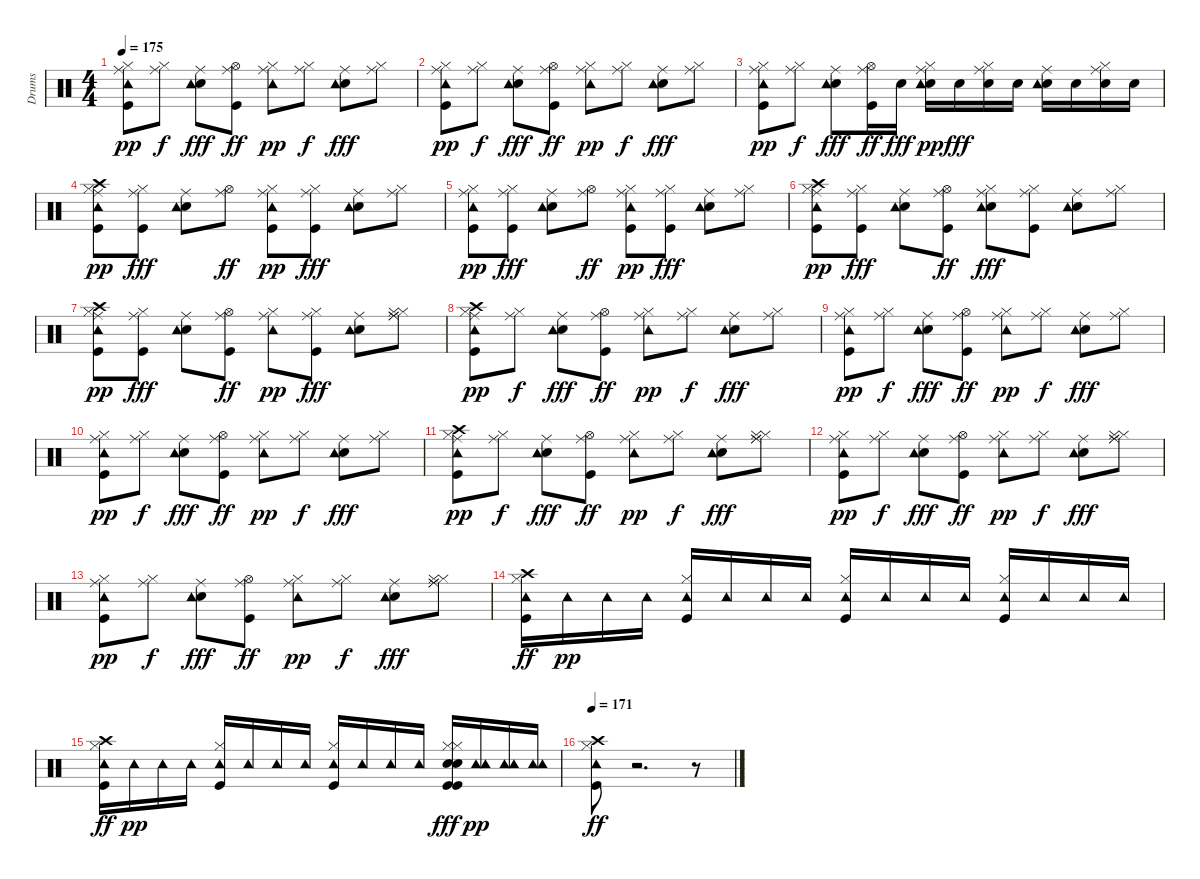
\track ("Drums" "Drums") {instrument percussion}
\staff {score}
\articulation defaults
\ts (4 4)
\tempo 175
\clef neutral
\ks c
("Kick (hit)" "Hi-Hat (closed)" "Ride (middle)" "Tambourine (hit)").8{dy pp} ("Hi-Hat (closed)" "Ride (middle)").8{dy f} ("Snare (hit) 2" "Ride (middle)" "Tambourine (hit)").8{dy fff} ("Kick (hit)" "Hi-Hat (open)" "Ride (middle)").8{dy ff} ("Hi-Hat (closed)" "Ride (middle)" "Tambourine (hit)").8{dy pp} ("Hi-Hat (closed)" "Ride (middle)").8{dy f} ("Snare (hit) 2" "Ride (middle)" "Tambourine (hit)").8{dy fff} ("Hi-Hat (closed)" "Ride (middle)").8 |
("Kick (hit)" "Hi-Hat (closed)" "Ride (middle)" "Tambourine (hit)").8{dy pp} ("Hi-Hat (closed)" "Ride (middle)").8{dy f} ("Snare (hit) 2" "Ride (middle)" "Tambourine (hit)").8{dy fff} ("Kick (hit)" "Hi-Hat (open)" "Ride (middle)").8{dy ff} ("Hi-Hat (closed)" "Ride (middle)" "Tambourine (hit)").8{dy pp} ("Hi-Hat (closed)" "Ride (middle)").8{dy f} ("Snare (hit) 2" "Ride (middle)" "Tambourine (hit)").8{dy fff} ("Hi-Hat (closed)" "Ride (middle)").8 |
("Kick (hit)" "Hi-Hat (closed)" "Ride (middle)" "Tambourine (hit)").8{dy pp} ("Hi-Hat (closed)" "Ride (middle)").8{dy f} ("Snare (hit) 2" "Ride (middle)" "Tambourine (hit)").8{dy fff} ("Kick (hit)" "Hi-Hat (open)" "Ride (middle)").16{dy ff} "Snare (hit) 2".16{dy fff} ("Snare (hit) 2" "Hi-Hat (closed)" "Ride (middle)" "Tambourine (hit)").16{dy pp} "Snare (hit) 2".16{dy fff} ("Snare (hit) 2" "Hi-Hat (closed)" "Ride (middle)").16 "Snare (hit) 2".16 ("Snare (hit) 2" "Ride (middle)" "Tambourine (hit)").16 "Snare (hit) 2".16 ("Snare (hit) 2" "Hi-Hat (closed)" "Ride (middle)").16 "Snare (hit) 2".16 |
("Kick (hit)" "Hi-Hat (closed)" "Crash high (hit)" "Ride (middle)" "Tambourine (hit)").8{dy pp} ("Kick (hit)" "Hi-Hat (closed)" "Ride (middle)").8{dy fff} ("Snare (hit) 2" "Ride (middle)" "Tambourine (hit)").8 ("Hi-Hat (open)" "Ride (middle)").8{dy ff} ("Kick (hit)" "Hi-Hat (closed)" "Ride (middle)" "Tambourine (hit)").8{dy pp} ("Kick (hit)" "Hi-Hat (closed)" "Ride (middle)").8{dy fff} ("Snare (hit) 2" "Ride (middle)" "Tambourine (hit)").8 ("Hi-Hat (closed)" "Ride (middle)").8 |
("Kick (hit)" "Hi-Hat (closed)" "Ride (middle)" "Tambourine (hit)").8{dy pp} ("Kick (hit)" "Hi-Hat (closed)" "Ride (middle)").8{dy fff} ("Snare (hit) 2" "Ride (middle)" "Tambourine (hit)").8 ("Hi-Hat (open)" "Ride (middle)").8{dy ff} ("Kick (hit)" "Hi-Hat (closed)" "Ride (middle)" "Tambourine (hit)").8{dy pp} ("Kick (hit)" "Hi-Hat (closed)" "Ride (middle)").8{dy fff} ("Snare (hit) 2" "Ride (middle)" "Tambourine (hit)").8 ("Hi-Hat (closed)" "Ride (middle)").8 |
("Kick (hit)" "Hi-Hat (closed)" "Crash high (hit)" "Ride (middle)" "Tambourine (hit)").8{dy pp} ("Kick (hit)" "Hi-Hat (closed)" "Ride (middle)").8{dy fff} ("Snare (hit) 2" "Ride (middle)" "Tambourine (hit)").8 ("Kick (hit)" "Hi-Hat (open)" "Ride (middle)").8{dy ff} ("Snare (hit) 2" "Hi-Hat (closed)" "Ride (middle)" "Tambourine (hit)").8{dy fff} ("Kick (hit)" "Hi-Hat (closed)" "Ride (middle)").8 ("Snare (hit) 2" "Ride (middle)" "Tambourine (hit)").8 ("Hi-Hat (closed)" "Ride (middle)").8 |
("Kick (hit)" "Hi-Hat (closed)" "Crash high (hit)" "Ride (middle)" "Tambourine (hit)").8{dy pp} ("Kick (hit)" "Hi-Hat (closed)" "Ride (middle)").8{dy fff} ("Snare (hit) 2" "Ride (middle)" "Tambourine (hit)").8 ("Kick (hit)" "Hi-Hat (open)" "Ride (middle)").8{dy ff} ("Hi-Hat (closed)" "Ride (middle)" "Tambourine (hit)").8{dy pp} ("Kick (hit)" "Hi-Hat (closed)" "Ride (middle)").8{dy fff} ("Snare (hit) 2" "Ride (middle)" "Tambourine (hit)").8 ("Hi-Hat (closed)" "Hi-Hat (closed)" "Ride (middle)" "Ride (middle)").8 |
("Kick (hit)" "Hi-Hat (closed)" "Crash high (hit)" "Ride (middle)" "Tambourine (hit)").8{dy pp} ("Hi-Hat (closed)" "Ride (middle)").8{dy f} ("Snare (hit) 2" "Ride (middle)" "Tambourine (hit)").8{dy fff} ("Kick (hit)" "Hi-Hat (open)" "Ride (middle)").8{dy ff} ("Hi-Hat (closed)" "Ride (middle)" "Tambourine (hit)").8{dy pp} ("Hi-Hat (closed)" "Ride (middle)").8{dy f} ("Snare (hit) 2" "Ride (middle)" "Tambourine (hit)").8{dy fff} ("Hi-Hat (closed)" "Ride (middle)").8 |
("Kick (hit)" "Hi-Hat (closed)" "Ride (middle)" "Tambourine (hit)").8{dy pp} ("Hi-Hat (closed)" "Ride (middle)").8{dy f} ("Snare (hit) 2" "Ride (middle)" "Tambourine (hit)").8{dy fff} ("Kick (hit)" "Hi-Hat (open)" "Ride (middle)").8{dy ff} ("Hi-Hat (closed)" "Ride (middle)" "Tambourine (hit)").8{dy pp} ("Hi-Hat (closed)" "Ride (middle)").8{dy f} ("Snare (hit) 2" "Ride (middle)" "Tambourine (hit)").8{dy fff} ("Hi-Hat (closed)" "Ride (middle)").8 |
("Kick (hit)" "Hi-Hat (closed)" "Ride (middle)" "Tambourine (hit)").8{dy pp} ("Hi-Hat (closed)" "Ride (middle)").8{dy f} ("Snare (hit) 2" "Ride (middle)" "Tambourine (hit)").8{dy fff} ("Kick (hit)" "Hi-Hat (open)" "Ride (middle)").8{dy ff} ("Hi-Hat (closed)" "Ride (middle)" "Tambourine (hit)").8{dy pp} ("Hi-Hat (closed)" "Ride (middle)").8{dy f} ("Snare (hit) 2" "Ride (middle)" "Tambourine (hit)").8{dy fff} ("Hi-Hat (closed)" "Ride (middle)").8 |
("Kick (hit)" "Hi-Hat (closed)" "Crash high (hit)" "Ride (middle)" "Tambourine (hit)").8{dy pp} ("Hi-Hat (closed)" "Ride (middle)").8{dy f} ("Snare (hit) 2" "Ride (middle)" "Tambourine (hit)").8{dy fff} ("Kick (hit)" "Hi-Hat (open)" "Ride (middle)").8{dy ff} ("Hi-Hat (closed)" "Ride (middle)" "Tambourine (hit)").8{dy pp} ("Hi-Hat (closed)" "Ride (middle)").8{dy f} ("Snare (hit) 2" "Ride (middle)" "Tambourine (hit)").8{dy fff} ("Hi-Hat (closed)" "Hi-Hat (closed)" "Ride (middle)" "Ride (middle)").8 |
("Kick (hit)" "Hi-Hat (closed)" "Ride (middle)" "Tambourine (hit)").8{dy pp} ("Hi-Hat (closed)" "Ride (middle)").8{dy f} ("Snare (hit) 2" "Ride (middle)" "Tambourine (hit)").8{dy fff} ("Kick (hit)" "Hi-Hat (open)" "Ride (middle)").8{dy ff} ("Hi-Hat (closed)" "Ride (middle)" "Tambourine (hit)").8{dy pp} ("Hi-Hat (closed)" "Ride (middle)").8{dy f} ("Snare (hit) 2" "Ride (middle)" "Tambourine (hit)").8{dy fff} ("Hi-Hat (closed)" "Hi-Hat (closed)" "Ride (middle)" "Ride (middle)").8 |
("Kick (hit)" "Hi-Hat (closed)" "Ride (middle)" "Tambourine (hit)").8{dy pp} ("Hi-Hat (closed)" "Ride (middle)").8{dy f} ("Snare (hit) 2" "Ride (middle)" "Tambourine (hit)").8{dy fff} ("Kick (hit)" "Hi-Hat (open)" "Ride (middle)").8{dy ff} ("Hi-Hat (closed)" "Ride (middle)" "Tambourine (hit)").8{dy pp} ("Hi-Hat (closed)" "Ride (middle)").8{dy f} ("Snare (hit) 2" "Ride (middle)" "Tambourine (hit)").8{dy fff} ("Hi-Hat (closed)" "Hi-Hat (closed)" "Ride (middle)" "Ride (middle)").8 |
("Kick (hit)" "Hi-Hat (closed)" "Crash high (hit)" "Tambourine (hit)").16{dy ff} "Tambourine (hit)".16{dy pp} "Tambourine (hit)".16 "Tambourine (hit)".16 ("Kick (hit)" "Hi-Hat (closed)" "Tambourine (hit)").16 "Tambourine (hit)".16 "Tambourine (hit)".16 "Tambourine (hit)".16 ("Kick (hit)" "Hi-Hat (closed)" "Tambourine (hit)").16 "Tambourine (hit)".16 "Tambourine (hit)".16 "Tambourine (hit)".16 ("Kick (hit)" "Hi-Hat (closed)" "Tambourine (hit)").16 "Tambourine (hit)".16 "Tambourine (hit)".16 "Tambourine (hit)".16 |
("Kick (hit)" "Hi-Hat (closed)" "Crash high (hit)" "Tambourine (hit)").16{dy ff} "Tambourine (hit)".16{dy pp} "Tambourine (hit)".16 "Tambourine (hit)".16 ("Kick (hit)" "Hi-Hat (closed)" "Tambourine (hit)").16 "Tambourine (hit)".16 "Tambourine (hit)".16 "Tambourine (hit)".16 ("Kick (hit)" "Hi-Hat (closed)" "Tambourine (hit)").16 "Tambourine (hit)".16 "Tambourine (hit)".16 "Tambourine (hit)".16 ("Kick (hit)" "Kick (hit)" "Snare (hit) 2" "Snare (hit) 2" "Hi-Hat (closed)" "Hi-Hat (closed)").16{dy fff} ("Tambourine (hit)" "Tambourine (hit)").16{dy pp} ("Tambourine (hit)" "Tambourine (hit)").16 ("Tambourine (hit)" "Tambourine (hit)").16 |
\tempo 171
("Kick (hit)" "Hi-Hat (closed)" "Crash high (hit)" "Tambourine (hit)").8{dy ff} r.2{d} r.8
